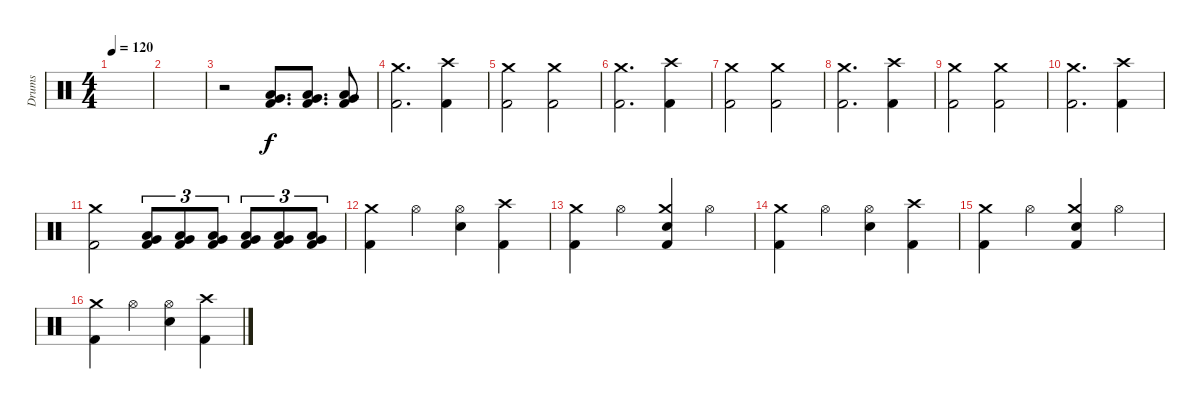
\track ("Drums" "Drums") {instrument percussion}
\staff {score}
\articulation defaults
\ts (4 4)
\tempo 120
\clef neutral
\ks c
|
|
r.2 ("Low Floor Tom (hit)" "Very Low Tom (hit)" "Kick (hit) 2").8{d} ("Low Floor Tom (hit)" "Very Low Tom (hit)" "Kick (hit) 2").8{d} ("Low Floor Tom (hit)" "Very Low Tom (hit)" "Kick (hit) 2").8 |
("Crash medium (hit)" "Kick (hit) 2").2{d} ("Crash high (hit)" "Kick (hit) 2").4 |
("Crash medium (hit)" "Kick (hit) 2").2 ("Crash medium (hit)" "Kick (hit) 2").2 |
("Crash medium (hit)" "Kick (hit) 2").2{d} ("Crash high (hit)" "Kick (hit) 2").4 |
("Crash medium (hit)" "Kick (hit) 2").2 ("Crash medium (hit)" "Kick (hit) 2").2 |
("Crash medium (hit)" "Kick (hit) 2").2{d} ("Crash high (hit)" "Kick (hit) 2").4 |
("Crash medium (hit)" "Kick (hit) 2").2 ("Crash medium (hit)" "Kick (hit) 2").2 |
("Crash medium (hit)" "Kick (hit) 2").2{d} ("Crash high (hit)" "Kick (hit) 2").4 |
("Crash medium (hit)" "Kick (hit) 2").2 ("Very Low Tom (hit)" "Low Tom (hit)" "Kick (hit) 2").8{tu (3 2)} ("Very Low Tom (hit)" "Low Tom (hit)" "Kick (hit) 2").8{tu (3 2)} ("Very Low Tom (hit)" "Low Tom (hit)" "Kick (hit) 2").8{tu (3 2)} ("Low Floor Tom (hit)" "Very Low Tom (hit)" "Kick (hit) 2").8{tu (3 2)} ("Low Floor Tom (hit)" "Very Low Tom (hit)" "Kick (hit) 2").8{tu (3 2)} ("Low Floor Tom (hit)" "Very Low Tom (hit)" "Kick (hit) 2").8{tu (3 2)} |
("Crash medium (hit)" "Kick (hit) 2").4 "Hi-Hat (open)".4 ("Hi-Hat (open)" "Electric Snare (hit)").4 ("Crash high (hit)" "Kick (hit) 2").4 |
("Crash medium (hit)" "Kick (hit) 2").4 "Hi-Hat (open)".4 ("Crash medium (hit)" "Electric Snare (hit)" "Kick (hit) 2").4 "Hi-Hat (open)".4 |
("Crash medium (hit)" "Kick (hit) 2").4 "Hi-Hat (open)".4 ("Hi-Hat (open)" "Electric Snare (hit)").4 ("Crash high (hit)" "Kick (hit) 2").4 |
("Crash medium (hit)" "Kick (hit) 2").4 "Hi-Hat (open)".4 ("Crash medium (hit)" "Electric Snare (hit)" "Kick (hit) 2").4 "Hi-Hat (open)".4 |
("Crash medium (hit)" "Kick (hit) 2").4 "Hi-Hat (open)".4 ("Hi-Hat (open)" "Electric Snare (hit)").4 ("Crash high (hit)" "Kick (hit) 2").4
